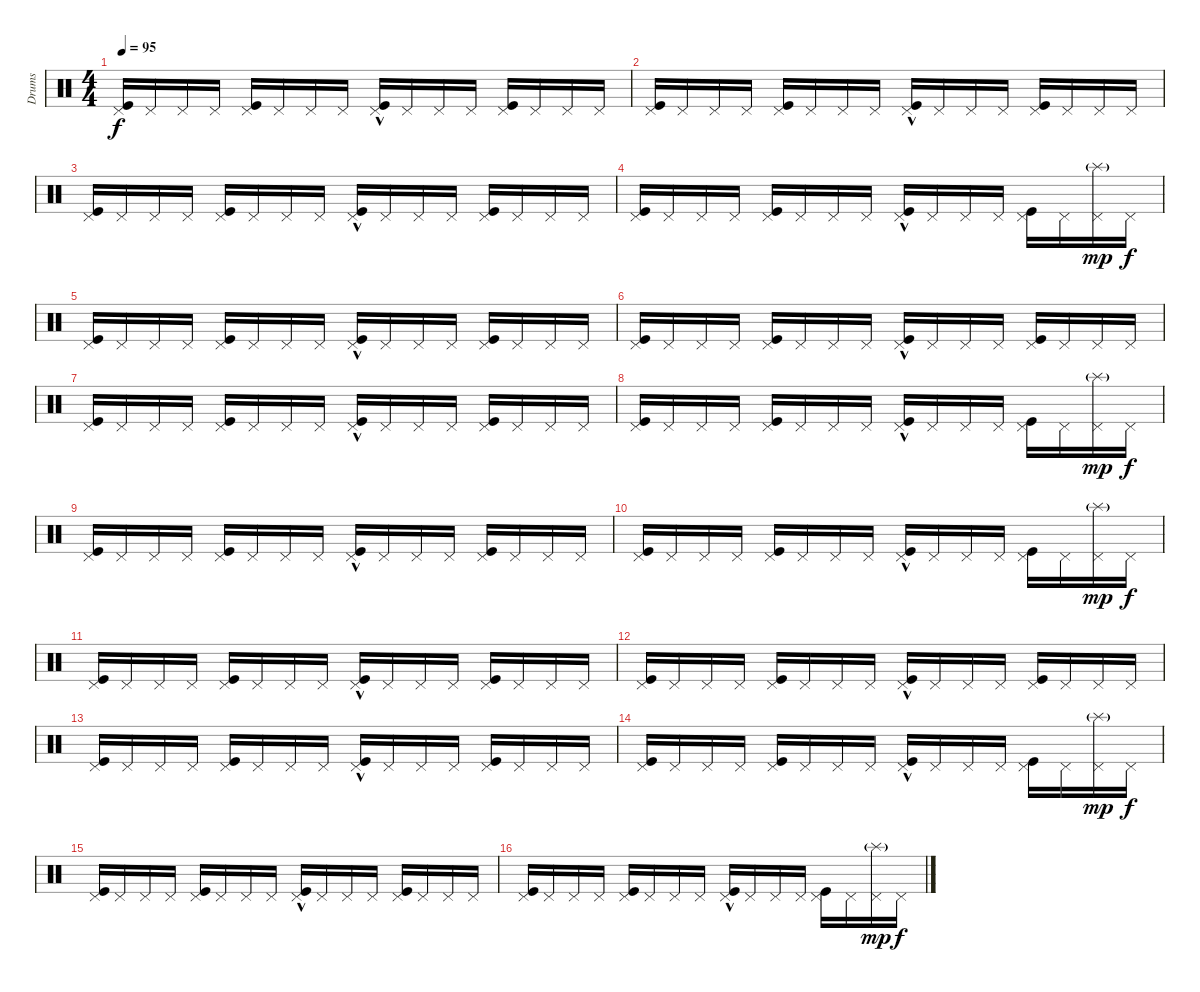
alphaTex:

\track ("Drums" "Drums") {instrument percussion}
\staff {score}
\articulation defaults
\ts (4 4)
\tempo 95
\clef neutral
\ks c
("Kick (hit)" "Pedal Hi-Hat (hit)").16{dy f} "Pedal Hi-Hat (hit)".16 "Pedal Hi-Hat (hit)".16 "Pedal Hi-Hat (hit)".16 ("Kick (hit)" "Pedal Hi-Hat (hit)").16 "Pedal Hi-Hat (hit)".16 "Pedal Hi-Hat (hit)".16 "Pedal Hi-Hat (hit)".16 ("Kick (hit)" "Pedal Hi-Hat (hit)"{hac}).16 "Pedal Hi-Hat (hit)".16 "Pedal Hi-Hat (hit)".16 "Pedal Hi-Hat (hit)".16 ("Kick (hit)" "Pedal Hi-Hat (hit)").16 "Pedal Hi-Hat (hit)".16 "Pedal Hi-Hat (hit)".16 "Pedal Hi-Hat (hit)".16 |
("Kick (hit)" "Pedal Hi-Hat (hit)").16 "Pedal Hi-Hat (hit)".16 "Pedal Hi-Hat (hit)".16 "Pedal Hi-Hat (hit)".16 ("Kick (hit)" "Pedal Hi-Hat (hit)").16 "Pedal Hi-Hat (hit)".16 "Pedal Hi-Hat (hit)".16 "Pedal Hi-Hat (hit)".16 ("Kick (hit)" "Pedal Hi-Hat (hit)"{hac}).16 "Pedal Hi-Hat (hit)".16 "Pedal Hi-Hat (hit)".16 "Pedal Hi-Hat (hit)".16 ("Kick (hit)" "Pedal Hi-Hat (hit)").16 "Pedal Hi-Hat (hit)".16 "Pedal Hi-Hat (hit)".16 "Pedal Hi-Hat (hit)".16 |
("Kick (hit)" "Pedal Hi-Hat (hit)").16 "Pedal Hi-Hat (hit)".16 "Pedal Hi-Hat (hit)".16 "Pedal Hi-Hat (hit)".16 ("Kick (hit)" "Pedal Hi-Hat (hit)").16 "Pedal Hi-Hat (hit)".16 "Pedal Hi-Hat (hit)".16 "Pedal Hi-Hat (hit)".16 ("Kick (hit)" "Pedal Hi-Hat (hit)"{hac}).16 "Pedal Hi-Hat (hit)".16 "Pedal Hi-Hat (hit)".16 "Pedal Hi-Hat (hit)".16 ("Kick (hit)" "Pedal Hi-Hat (hit)").16 "Pedal Hi-Hat (hit)".16 "Pedal Hi-Hat (hit)".16 "Pedal Hi-Hat (hit)".16 |
("Kick (hit)" "Pedal Hi-Hat (hit)").16 "Pedal Hi-Hat (hit)".16 "Pedal Hi-Hat (hit)".16 "Pedal Hi-Hat (hit)".16 ("Kick (hit)" "Pedal Hi-Hat (hit)").16 "Pedal Hi-Hat (hit)".16 "Pedal Hi-Hat (hit)".16 "Pedal Hi-Hat (hit)".16 ("Kick (hit)" "Pedal Hi-Hat (hit)"{hac}).16 "Pedal Hi-Hat (hit)".16 "Pedal Hi-Hat (hit)".16 "Pedal Hi-Hat (hit)".16 ("Kick (hit)" "Pedal Hi-Hat (hit)").16 "Pedal Hi-Hat (hit)".16 ("Splash (hit)"{g} "Pedal Hi-Hat (hit)").16{dy mp} "Pedal Hi-Hat (hit)".16{dy f} |
("Kick (hit)" "Pedal Hi-Hat (hit)").16 "Pedal Hi-Hat (hit)".16 "Pedal Hi-Hat (hit)".16 "Pedal Hi-Hat (hit)".16 ("Kick (hit)" "Pedal Hi-Hat (hit)").16 "Pedal Hi-Hat (hit)".16 "Pedal Hi-Hat (hit)".16 "Pedal Hi-Hat (hit)".16 ("Kick (hit)" "Pedal Hi-Hat (hit)"{hac}).16 "Pedal Hi-Hat (hit)".16 "Pedal Hi-Hat (hit)".16 "Pedal Hi-Hat (hit)".16 ("Kick (hit)" "Pedal Hi-Hat (hit)").16 "Pedal Hi-Hat (hit)".16 "Pedal Hi-Hat (hit)".16 "Pedal Hi-Hat (hit)".16 |
("Kick (hit)" "Pedal Hi-Hat (hit)").16 "Pedal Hi-Hat (hit)".16 "Pedal Hi-Hat (hit)".16 "Pedal Hi-Hat (hit)".16 ("Kick (hit)" "Pedal Hi-Hat (hit)").16 "Pedal Hi-Hat (hit)".16 "Pedal Hi-Hat (hit)".16 "Pedal Hi-Hat (hit)".16 ("Kick (hit)" "Pedal Hi-Hat (hit)"{hac}).16 "Pedal Hi-Hat (hit)".16 "Pedal Hi-Hat (hit)".16 "Pedal Hi-Hat (hit)".16 ("Kick (hit)" "Pedal Hi-Hat (hit)").16 "Pedal Hi-Hat (hit)".16 "Pedal Hi-Hat (hit)".16 "Pedal Hi-Hat (hit)".16 |
("Kick (hit)" "Pedal Hi-Hat (hit)").16 "Pedal Hi-Hat (hit)".16 "Pedal Hi-Hat (hit)".16 "Pedal Hi-Hat (hit)".16 ("Kick (hit)" "Pedal Hi-Hat (hit)").16 "Pedal Hi-Hat (hit)".16 "Pedal Hi-Hat (hit)".16 "Pedal Hi-Hat (hit)".16 ("Kick (hit)" "Pedal Hi-Hat (hit)"{hac}).16 "Pedal Hi-Hat (hit)".16 "Pedal Hi-Hat (hit)".16 "Pedal Hi-Hat (hit)".16 ("Kick (hit)" "Pedal Hi-Hat (hit)").16 "Pedal Hi-Hat (hit)".16 "Pedal Hi-Hat (hit)".16 "Pedal Hi-Hat (hit)".16 |
("Kick (hit)" "Pedal Hi-Hat (hit)").16 "Pedal Hi-Hat (hit)".16 "Pedal Hi-Hat (hit)".16 "Pedal Hi-Hat (hit)".16 ("Kick (hit)" "Pedal Hi-Hat (hit)").16 "Pedal Hi-Hat (hit)".16 "Pedal Hi-Hat (hit)".16 "Pedal Hi-Hat (hit)".16 ("Kick (hit)" "Pedal Hi-Hat (hit)"{hac}).16 "Pedal Hi-Hat (hit)".16 "Pedal Hi-Hat (hit)".16 "Pedal Hi-Hat (hit)".16 ("Kick (hit)" "Pedal Hi-Hat (hit)").16 "Pedal Hi-Hat (hit)".16 ("Splash (hit)"{g} "Pedal Hi-Hat (hit)").16{dy mp} "Pedal Hi-Hat (hit)".16{dy f} |
("Kick (hit)" "Pedal Hi-Hat (hit)").16 "Pedal Hi-Hat (hit)".16 "Pedal Hi-Hat (hit)".16 "Pedal Hi-Hat (hit)".16 ("Kick (hit)" "Pedal Hi-Hat (hit)").16 "Pedal Hi-Hat (hit)".16 "Pedal Hi-Hat (hit)".16 "Pedal Hi-Hat (hit)".16 ("Kick (hit)" "Pedal Hi-Hat (hit)"{hac}).16 "Pedal Hi-Hat (hit)".16 "Pedal Hi-Hat (hit)".16 "Pedal Hi-Hat (hit)".16 ("Kick (hit)" "Pedal Hi-Hat (hit)").16 "Pedal Hi-Hat (hit)".16 "Pedal Hi-Hat (hit)".16 "Pedal Hi-Hat (hit)".16 |
("Kick (hit)" "Pedal Hi-Hat (hit)").16 "Pedal Hi-Hat (hit)".16 "Pedal Hi-Hat (hit)".16 "Pedal Hi-Hat (hit)".16 ("Kick (hit)" "Pedal Hi-Hat (hit)").16 "Pedal Hi-Hat (hit)".16 "Pedal Hi-Hat (hit)".16 "Pedal Hi-Hat (hit)".16 ("Kick (hit)" "Pedal Hi-Hat (hit)"{hac}).16 "Pedal Hi-Hat (hit)".16 "Pedal Hi-Hat (hit)".16 "Pedal Hi-Hat (hit)".16 ("Kick (hit)" "Pedal Hi-Hat (hit)").16 "Pedal Hi-Hat (hit)".16 ("Splash (hit)"{g} "Pedal Hi-Hat (hit)").16{dy mp} "Pedal Hi-Hat (hit)".16{dy f} |
("Kick (hit)" "Pedal Hi-Hat (hit)").16 "Pedal Hi-Hat (hit)".16 "Pedal Hi-Hat (hit)".16 "Pedal Hi-Hat (hit)".16 ("Kick (hit)" "Pedal Hi-Hat (hit)").16 "Pedal Hi-Hat (hit)".16 "Pedal Hi-Hat (hit)".16 "Pedal Hi-Hat (hit)".16 ("Kick (hit)" "Pedal Hi-Hat (hit)"{hac}).16 "Pedal Hi-Hat (hit)".16 "Pedal Hi-Hat (hit)".16 "Pedal Hi-Hat (hit)".16 ("Kick (hit)" "Pedal Hi-Hat (hit)").16 "Pedal Hi-Hat (hit)".16 "Pedal Hi-Hat (hit)".16 "Pedal Hi-Hat (hit)".16 |
("Kick (hit)" "Pedal Hi-Hat (hit)").16 "Pedal Hi-Hat (hit)".16 "Pedal Hi-Hat (hit)".16 "Pedal Hi-Hat (hit)".16 ("Kick (hit)" "Pedal Hi-Hat (hit)").16 "Pedal Hi-Hat (hit)".16 "Pedal Hi-Hat (hit)".16 "Pedal Hi-Hat (hit)".16 ("Kick (hit)" "Pedal Hi-Hat (hit)"{hac}).16 "Pedal Hi-Hat (hit)".16 "Pedal Hi-Hat (hit)".16 "Pedal Hi-Hat (hit)".16 ("Kick (hit)" "Pedal Hi-Hat (hit)").16 "Pedal Hi-Hat (hit)".16 "Pedal Hi-Hat (hit)".16 "Pedal Hi-Hat (hit)".16 |
("Kick (hit)" "Pedal Hi-Hat (hit)").16 "Pedal Hi-Hat (hit)".16 "Pedal Hi-Hat (hit)".16 "Pedal Hi-Hat (hit)".16 ("Kick (hit)" "Pedal Hi-Hat (hit)").16 "Pedal Hi-Hat (hit)".16 "Pedal Hi-Hat (hit)".16 "Pedal Hi-Hat (hit)".16 ("Kick (hit)" "Pedal Hi-Hat (hit)"{hac}).16 "Pedal Hi-Hat (hit)".16 "Pedal Hi-Hat (hit)".16 "Pedal Hi-Hat (hit)".16 ("Kick (hit)" "Pedal Hi-Hat (hit)").16 "Pedal Hi-Hat (hit)".16 "Pedal Hi-Hat (hit)".16 "Pedal Hi-Hat (hit)".16 |
("Kick (hit)" "Pedal Hi-Hat (hit)").16 "Pedal Hi-Hat (hit)".16 "Pedal Hi-Hat (hit)".16 "Pedal Hi-Hat (hit)".16 ("Kick (hit)" "Pedal Hi-Hat (hit)").16 "Pedal Hi-Hat (hit)".16 "Pedal Hi-Hat (hit)".16 "Pedal Hi-Hat (hit)".16 ("Kick (hit)" "Pedal Hi-Hat (hit)"{hac}).16 "Pedal Hi-Hat (hit)".16 "Pedal Hi-Hat (hit)".16 "Pedal Hi-Hat (hit)".16 ("Kick (hit)" "Pedal Hi-Hat (hit)").16 "Pedal Hi-Hat (hit)".16 ("Splash (hit)"{g} "Pedal Hi-Hat (hit)").16{dy mp} "Pedal Hi-Hat (hit)".16{dy f} |
("Kick (hit)" "Pedal Hi-Hat (hit)").16 "Pedal Hi-Hat (hit)".16 "Pedal Hi-Hat (hit)".16 "Pedal Hi-Hat (hit)".16 ("Kick (hit)" "Pedal Hi-Hat (hit)").16 "Pedal Hi-Hat (hit)".16 "Pedal Hi-Hat (hit)".16 "Pedal Hi-Hat (hit)".16 ("Kick (hit)" "Pedal Hi-Hat (hit)"{hac}).16 "Pedal Hi-Hat (hit)".16 "Pedal Hi-Hat (hit)".16 "Pedal Hi-Hat (hit)".16 ("Kick (hit)" "Pedal Hi-Hat (hit)").16 "Pedal Hi-Hat (hit)".16 "Pedal Hi-Hat (hit)".16 "Pedal Hi-Hat (hit)".16 |
("Kick (hit)" "Pedal Hi-Hat (hit)").16 "Pedal Hi-Hat (hit)".16 "Pedal Hi-Hat (hit)".16 "Pedal Hi-Hat (hit)".16 ("Kick (hit)" "Pedal Hi-Hat (hit)").16 "Pedal Hi-Hat (hit)".16 "Pedal Hi-Hat (hit)".16 "Pedal Hi-Hat (hit)".16 ("Kick (hit)" "Pedal Hi-Hat (hit)"{hac}).16 "Pedal Hi-Hat (hit)".16 "Pedal Hi-Hat (hit)".16 "Pedal Hi-Hat (hit)".16 ("Kick (hit)" "Pedal Hi-Hat (hit)").16 "Pedal Hi-Hat (hit)".16 ("Splash (hit)"{g} "Pedal Hi-Hat (hit)").16{dy mp} "Pedal Hi-Hat (hit)".16{dy f}
